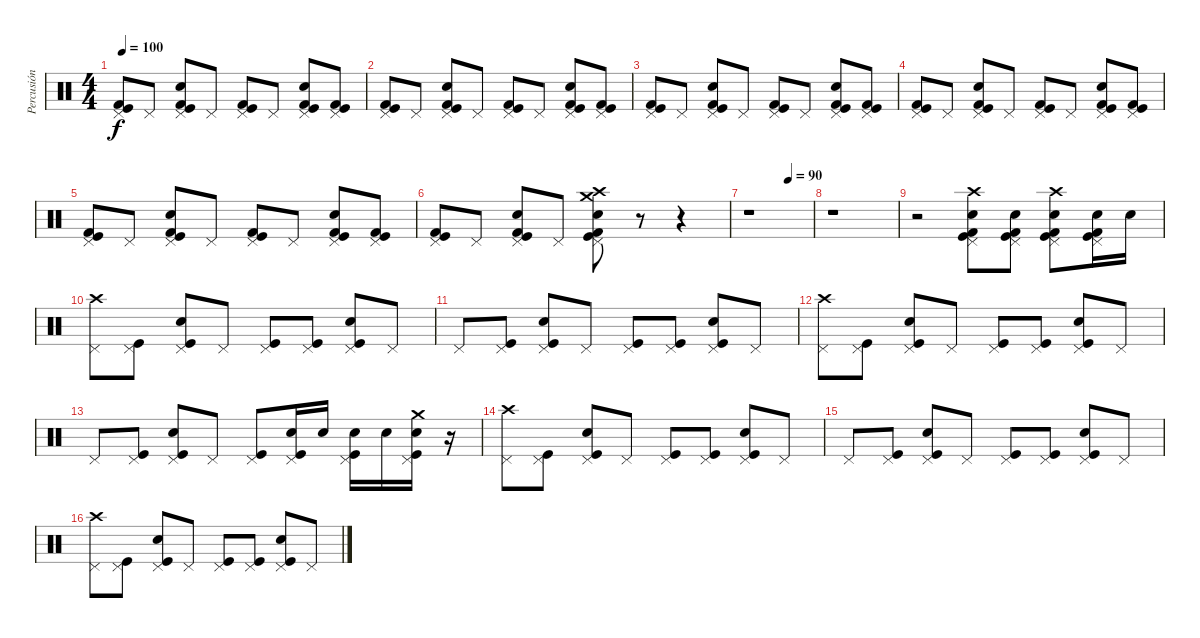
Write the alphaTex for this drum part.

\track ("Percusión" "Percusión") {instrument percussion}
\staff {score}
\articulation defaults
\ts (4 4)
\tempo 100
\clef neutral
\ks c
("Pedal Hi-Hat (hit)" "Kick (hit)" "Kick (hit) 2").8{dy f} "Pedal Hi-Hat (hit)".8 ("Pedal Hi-Hat (hit)" "Kick (hit)" "Kick (hit) 2" "Snare (hit) 2").8 "Pedal Hi-Hat (hit)".8 ("Pedal Hi-Hat (hit)" "Kick (hit)" "Kick (hit) 2").8 "Pedal Hi-Hat (hit)".8 ("Pedal Hi-Hat (hit)" "Kick (hit)" "Kick (hit) 2" "Snare (hit) 2").8 ("Pedal Hi-Hat (hit)" "Kick (hit)" "Kick (hit) 2").8 |
("Pedal Hi-Hat (hit)" "Kick (hit)" "Kick (hit) 2").8 "Pedal Hi-Hat (hit)".8 ("Pedal Hi-Hat (hit)" "Kick (hit)" "Kick (hit) 2" "Snare (hit) 2").8 "Pedal Hi-Hat (hit)".8 ("Pedal Hi-Hat (hit)" "Kick (hit)" "Kick (hit) 2").8 "Pedal Hi-Hat (hit)".8 ("Pedal Hi-Hat (hit)" "Kick (hit)" "Kick (hit) 2" "Snare (hit) 2").8 ("Pedal Hi-Hat (hit)" "Kick (hit)" "Kick (hit) 2").8 |
("Pedal Hi-Hat (hit)" "Kick (hit)" "Kick (hit) 2").8 "Pedal Hi-Hat (hit)".8 ("Pedal Hi-Hat (hit)" "Kick (hit)" "Kick (hit) 2" "Snare (hit) 2").8 "Pedal Hi-Hat (hit)".8 ("Pedal Hi-Hat (hit)" "Kick (hit)" "Kick (hit) 2").8 "Pedal Hi-Hat (hit)".8 ("Pedal Hi-Hat (hit)" "Kick (hit)" "Kick (hit) 2" "Snare (hit) 2").8 ("Pedal Hi-Hat (hit)" "Kick (hit)" "Kick (hit) 2").8 |
("Pedal Hi-Hat (hit)" "Kick (hit)" "Kick (hit) 2").8 "Pedal Hi-Hat (hit)".8 ("Pedal Hi-Hat (hit)" "Kick (hit)" "Kick (hit) 2" "Snare (hit) 2").8 "Pedal Hi-Hat (hit)".8 ("Pedal Hi-Hat (hit)" "Kick (hit)" "Kick (hit) 2").8 "Pedal Hi-Hat (hit)".8 ("Pedal Hi-Hat (hit)" "Kick (hit)" "Kick (hit) 2" "Snare (hit) 2").8 ("Pedal Hi-Hat (hit)" "Kick (hit)" "Kick (hit) 2").8 |
("Pedal Hi-Hat (hit)" "Kick (hit)" "Kick (hit) 2").8 "Pedal Hi-Hat (hit)".8 ("Pedal Hi-Hat (hit)" "Kick (hit)" "Kick (hit) 2" "Snare (hit) 2").8 "Pedal Hi-Hat (hit)".8 ("Pedal Hi-Hat (hit)" "Kick (hit)" "Kick (hit) 2").8 "Pedal Hi-Hat (hit)".8 ("Pedal Hi-Hat (hit)" "Kick (hit)" "Kick (hit) 2" "Snare (hit) 2").8 ("Pedal Hi-Hat (hit)" "Kick (hit)" "Kick (hit) 2").8 |
("Pedal Hi-Hat (hit)" "Kick (hit)" "Kick (hit) 2").8 "Pedal Hi-Hat (hit)".8 ("Pedal Hi-Hat (hit)" "Kick (hit)" "Kick (hit) 2" "Snare (hit) 2").8 "Pedal Hi-Hat (hit)".8 ("Pedal Hi-Hat (hit)" "Crash high (hit)" "Crash medium (hit)" "Kick (hit)" "Kick (hit) 2" "Snare (hit) 2").8 r.8 r.4 |
\tempo (90 0.625)
r.1 |
r.1 |
r.2 ("Pedal Hi-Hat (hit)" "Kick (hit)" "Kick (hit) 2" "Snare (hit) 2" "Crash high (hit)").8 ("Pedal Hi-Hat (hit)" "Kick (hit)" "Kick (hit) 2" "Snare (hit) 2").8 ("Pedal Hi-Hat (hit)" "Kick (hit)" "Kick (hit) 2" "Snare (hit) 2" "Crash high (hit)").8 ("Pedal Hi-Hat (hit)" "Kick (hit)" "Kick (hit) 2" "Snare (hit) 2").16 "Snare (hit) 2".16 |
("Pedal Hi-Hat (hit)" "Crash high (hit)").8{balance 12} ("Pedal Hi-Hat (hit)" "Kick (hit)").8{balance 8} ("Pedal Hi-Hat (hit)" "Kick (hit)" "Snare (hit) 2").8 "Pedal Hi-Hat (hit)".8 ("Pedal Hi-Hat (hit)" "Kick (hit)").8 ("Pedal Hi-Hat (hit)" "Kick (hit)").8 ("Pedal Hi-Hat (hit)" "Kick (hit)" "Snare (hit) 2").8 "Pedal Hi-Hat (hit)".8 |
"Pedal Hi-Hat (hit)".8 ("Pedal Hi-Hat (hit)" "Kick (hit)").8 ("Pedal Hi-Hat (hit)" "Kick (hit)" "Snare (hit) 2").8 "Pedal Hi-Hat (hit)".8 ("Pedal Hi-Hat (hit)" "Kick (hit)").8 ("Pedal Hi-Hat (hit)" "Kick (hit)").8 ("Pedal Hi-Hat (hit)" "Kick (hit)" "Snare (hit) 2").8 "Pedal Hi-Hat (hit)".8 |
("Pedal Hi-Hat (hit)" "Crash high (hit)").8{balance 4} ("Pedal Hi-Hat (hit)" "Kick (hit)").8{balance 8} ("Pedal Hi-Hat (hit)" "Kick (hit)" "Snare (hit) 2").8 "Pedal Hi-Hat (hit)".8 ("Pedal Hi-Hat (hit)" "Kick (hit)").8 ("Pedal Hi-Hat (hit)" "Kick (hit)").8 ("Pedal Hi-Hat (hit)" "Kick (hit)" "Snare (hit) 2").8 "Pedal Hi-Hat (hit)".8 |
"Pedal Hi-Hat (hit)".8 ("Pedal Hi-Hat (hit)" "Kick (hit)").8 ("Pedal Hi-Hat (hit)" "Kick (hit)" "Snare (hit) 2").8 "Pedal Hi-Hat (hit)".8 ("Pedal Hi-Hat (hit)" "Kick (hit)").8 ("Pedal Hi-Hat (hit)" "Kick (hit)" "Snare (hit) 2").16 "Snare (hit) 2".16 ("Pedal Hi-Hat (hit)" "Kick (hit)" "Snare (hit) 2").16 "Snare (hit) 2".16 ("Pedal Hi-Hat (hit)" "Crash medium (hit)" "Kick (hit)" "Snare (hit) 2").16{balance 12} r.16 |
("Pedal Hi-Hat (hit)" "Crash high (hit)").8{balance 4} ("Pedal Hi-Hat (hit)" "Kick (hit)").8{balance 8} ("Pedal Hi-Hat (hit)" "Kick (hit)" "Snare (hit) 2").8 "Pedal Hi-Hat (hit)".8 ("Pedal Hi-Hat (hit)" "Kick (hit)").8 ("Pedal Hi-Hat (hit)" "Kick (hit)").8 ("Pedal Hi-Hat (hit)" "Kick (hit)" "Snare (hit) 2").8 "Pedal Hi-Hat (hit)".8 |
"Pedal Hi-Hat (hit)".8 ("Pedal Hi-Hat (hit)" "Kick (hit)").8 ("Pedal Hi-Hat (hit)" "Kick (hit)" "Snare (hit) 2").8 "Pedal Hi-Hat (hit)".8 ("Pedal Hi-Hat (hit)" "Kick (hit)").8 ("Pedal Hi-Hat (hit)" "Kick (hit)").8 ("Pedal Hi-Hat (hit)" "Kick (hit)" "Snare (hit) 2").8 "Pedal Hi-Hat (hit)".8 |
("Pedal Hi-Hat (hit)" "Crash high (hit)").8{balance 12} ("Pedal Hi-Hat (hit)" "Kick (hit)").8{balance 8} ("Pedal Hi-Hat (hit)" "Kick (hit)" "Snare (hit) 2").8 "Pedal Hi-Hat (hit)".8 ("Pedal Hi-Hat (hit)" "Kick (hit)").8 ("Pedal Hi-Hat (hit)" "Kick (hit)").8 ("Pedal Hi-Hat (hit)" "Kick (hit)" "Snare (hit) 2").8 "Pedal Hi-Hat (hit)".8
